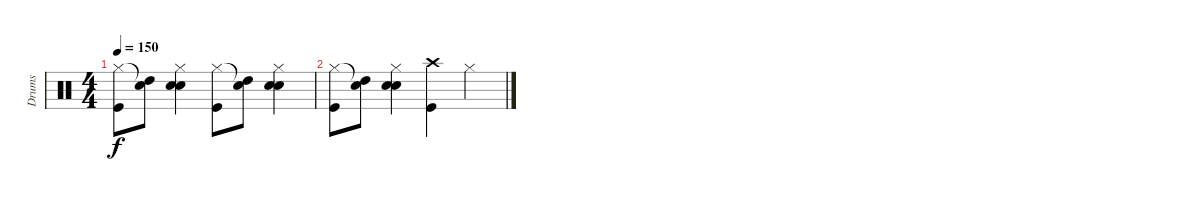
\track ("Drums" "Drums") {instrument percussion}
\staff {score}
\articulation defaults
\ts (4 4)
\tempo 150
\clef neutral
\ks c
("Hi-Hat (closed)" "Kick (hit)").8{dy f volume 2} ("Snare (hit)"{t} "High Tom (hit)").8 ("Hi-Hat (closed)" "Hand Clap (hit)" "Snare (hit) 2").4 ("Hi-Hat (closed)" "Kick (hit)").8 ("Snare (hit)"{t} "High Tom (hit)").8 ("Hi-Hat (closed)" "Hand Clap (hit)" "Snare (hit) 2").4 |
("Hi-Hat (closed)" "Kick (hit)").8{volume 1} ("Snare (hit)"{t} "High Tom (hit)").8 ("Hi-Hat (closed)" "Hand Clap (hit)" "Snare (hit) 2").4 ("Crash high (hit)" "Kick (hit)").4 "Hi-Hat (closed)".4
